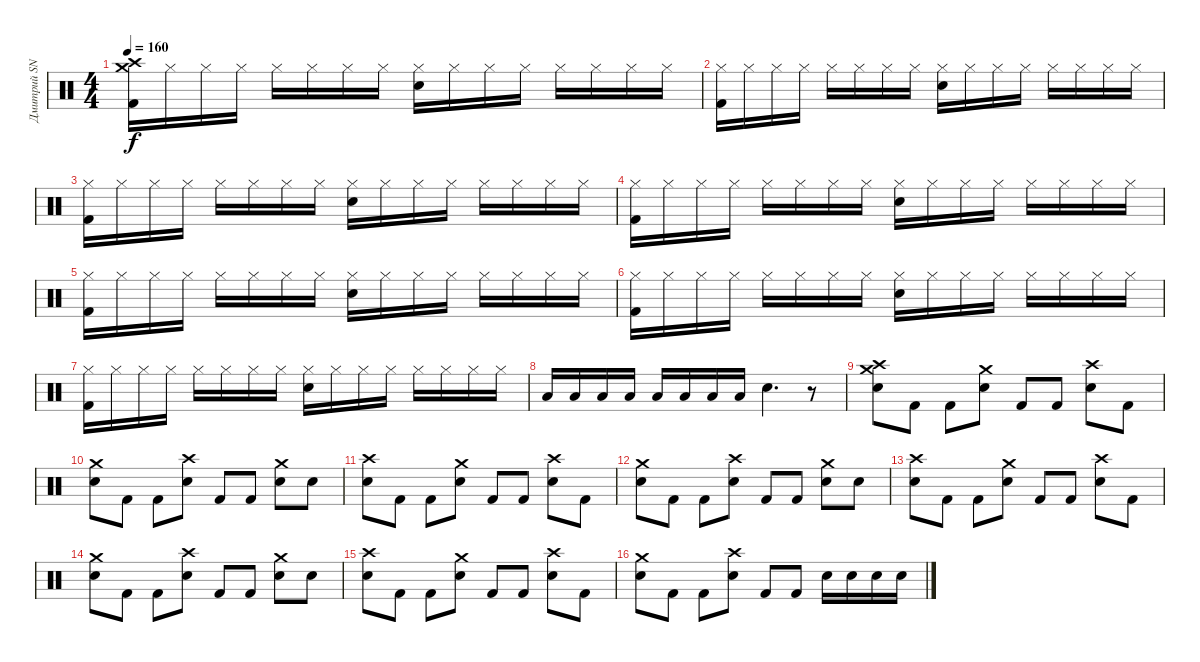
\track ("Дмитрий SNAKE Хакимов" "Дмитрий SN") {instrument percussion}
\staff {score}
\articulation defaults
\ts (4 4)
\tempo 160
\clef neutral
\ks c
("Crash high (hit)" "Crash medium (hit)" "Kick (hit) 2").16{dy f} "Hi-Hat (closed)".16 "Hi-Hat (closed)".16 "Hi-Hat (closed)".16 "Hi-Hat (closed)".16 "Hi-Hat (closed)".16 "Hi-Hat (closed)".16 "Hi-Hat (closed)".16 ("Hi-Hat (closed)" "Snare (hit) 2").16 "Hi-Hat (closed)".16 "Hi-Hat (closed)".16 "Hi-Hat (closed)".16 "Hi-Hat (closed)".16 "Hi-Hat (closed)".16 "Hi-Hat (closed)".16 "Hi-Hat (closed)".16 |
("Hi-Hat (closed)" "Kick (hit) 2").16 "Hi-Hat (closed)".16 "Hi-Hat (closed)".16 "Hi-Hat (closed)".16 "Hi-Hat (closed)".16 "Hi-Hat (closed)".16 "Hi-Hat (closed)".16 "Hi-Hat (closed)".16 ("Hi-Hat (closed)" "Snare (hit) 2").16 "Hi-Hat (closed)".16 "Hi-Hat (closed)".16 "Hi-Hat (closed)".16 "Hi-Hat (closed)".16 "Hi-Hat (closed)".16 "Hi-Hat (closed)".16 "Hi-Hat (closed)".16 |
("Hi-Hat (closed)" "Kick (hit) 2").16 "Hi-Hat (closed)".16 "Hi-Hat (closed)".16 "Hi-Hat (closed)".16 "Hi-Hat (closed)".16 "Hi-Hat (closed)".16 "Hi-Hat (closed)".16 "Hi-Hat (closed)".16 ("Hi-Hat (closed)" "Snare (hit) 2").16 "Hi-Hat (closed)".16 "Hi-Hat (closed)".16 "Hi-Hat (closed)".16 "Hi-Hat (closed)".16 "Hi-Hat (closed)".16 "Hi-Hat (closed)".16 "Hi-Hat (closed)".16 |
("Hi-Hat (closed)" "Kick (hit) 2").16 "Hi-Hat (closed)".16 "Hi-Hat (closed)".16 "Hi-Hat (closed)".16 "Hi-Hat (closed)".16 "Hi-Hat (closed)".16 "Hi-Hat (closed)".16 "Hi-Hat (closed)".16 ("Hi-Hat (closed)" "Snare (hit) 2").16 "Hi-Hat (closed)".16 "Hi-Hat (closed)".16 "Hi-Hat (closed)".16 "Hi-Hat (closed)".16 "Hi-Hat (closed)".16 "Hi-Hat (closed)".16 "Hi-Hat (closed)".16 |
("Hi-Hat (closed)" "Kick (hit) 2").16 "Hi-Hat (closed)".16 "Hi-Hat (closed)".16 "Hi-Hat (closed)".16 "Hi-Hat (closed)".16 "Hi-Hat (closed)".16 "Hi-Hat (closed)".16 "Hi-Hat (closed)".16 ("Hi-Hat (closed)" "Snare (hit) 2").16 "Hi-Hat (closed)".16 "Hi-Hat (closed)".16 "Hi-Hat (closed)".16 "Hi-Hat (closed)".16 "Hi-Hat (closed)".16 "Hi-Hat (closed)".16 "Hi-Hat (closed)".16 |
("Hi-Hat (closed)" "Kick (hit) 2").16 "Hi-Hat (closed)".16 "Hi-Hat (closed)".16 "Hi-Hat (closed)".16 "Hi-Hat (closed)".16 "Hi-Hat (closed)".16 "Hi-Hat (closed)".16 "Hi-Hat (closed)".16 ("Hi-Hat (closed)" "Snare (hit) 2").16 "Hi-Hat (closed)".16 "Hi-Hat (closed)".16 "Hi-Hat (closed)".16 "Hi-Hat (closed)".16 "Hi-Hat (closed)".16 "Hi-Hat (closed)".16 "Hi-Hat (closed)".16 |
("Hi-Hat (closed)" "Kick (hit) 2").16 "Hi-Hat (closed)".16 "Hi-Hat (closed)".16 "Hi-Hat (closed)".16 "Hi-Hat (closed)".16 "Hi-Hat (closed)".16 "Hi-Hat (closed)".16 "Hi-Hat (closed)".16 ("Hi-Hat (closed)" "Snare (hit) 2").16 "Hi-Hat (closed)".16 "Hi-Hat (closed)".16 "Hi-Hat (closed)".16 "Hi-Hat (closed)".16 "Hi-Hat (closed)".16 "Hi-Hat (closed)".16 "Hi-Hat (closed)".16 |
"Low Tom (hit)".16 "Low Tom (hit)".16 "Low Tom (hit)".16 "Low Tom (hit)".16 "Low Tom (hit)".16 "Low Tom (hit)".16 "Low Tom (hit)".16 "Low Tom (hit)".16 "Snare (hit) 2".4{d} r.8 |
("Crash high (hit)" "Crash medium (hit)" "Snare (hit) 2").8 "Kick (hit) 2".8 "Kick (hit) 2".8 ("Crash medium (hit)" "Snare (hit) 2").8 "Kick (hit) 2".8 "Kick (hit) 2".8 ("Crash high (hit)" "Snare (hit) 2").8 "Kick (hit) 2".8 |
("Crash medium (hit)" "Snare (hit) 2").8 "Kick (hit) 2".8 "Kick (hit) 2".8 ("Crash high (hit)" "Snare (hit) 2").8 "Kick (hit) 2".8 "Kick (hit) 2".8 ("Crash medium (hit)" "Snare (hit) 2").8 "Snare (hit) 2".8 |
("Crash high (hit)" "Snare (hit) 2").8 "Kick (hit) 2".8 "Kick (hit) 2".8 ("Crash medium (hit)" "Snare (hit) 2").8 "Kick (hit) 2".8 "Kick (hit) 2".8 ("Crash high (hit)" "Snare (hit) 2").8 "Kick (hit) 2".8 |
("Crash medium (hit)" "Snare (hit) 2").8 "Kick (hit) 2".8 "Kick (hit) 2".8 ("Crash high (hit)" "Snare (hit) 2").8 "Kick (hit) 2".8 "Kick (hit) 2".8 ("Crash medium (hit)" "Snare (hit) 2").8 "Snare (hit) 2".8 |
("Crash high (hit)" "Snare (hit) 2").8 "Kick (hit) 2".8 "Kick (hit) 2".8 ("Crash medium (hit)" "Snare (hit) 2").8 "Kick (hit) 2".8 "Kick (hit) 2".8 ("Crash high (hit)" "Snare (hit) 2").8 "Kick (hit) 2".8 |
("Crash medium (hit)" "Snare (hit) 2").8 "Kick (hit) 2".8 "Kick (hit) 2".8 ("Crash high (hit)" "Snare (hit) 2").8 "Kick (hit) 2".8 "Kick (hit) 2".8 ("Crash medium (hit)" "Snare (hit) 2").8 "Snare (hit) 2".8 |
("Crash high (hit)" "Snare (hit) 2").8 "Kick (hit) 2".8 "Kick (hit) 2".8 ("Crash medium (hit)" "Snare (hit) 2").8 "Kick (hit) 2".8 "Kick (hit) 2".8 ("Crash high (hit)" "Snare (hit) 2").8 "Kick (hit) 2".8 |
("Crash medium (hit)" "Snare (hit) 2").8 "Kick (hit) 2".8 "Kick (hit) 2".8 ("Crash high (hit)" "Snare (hit) 2").8 "Kick (hit) 2".8 "Kick (hit) 2".8 "Snare (hit) 2".16 "Snare (hit) 2".16 "Snare (hit) 2".16 "Snare (hit) 2".16
